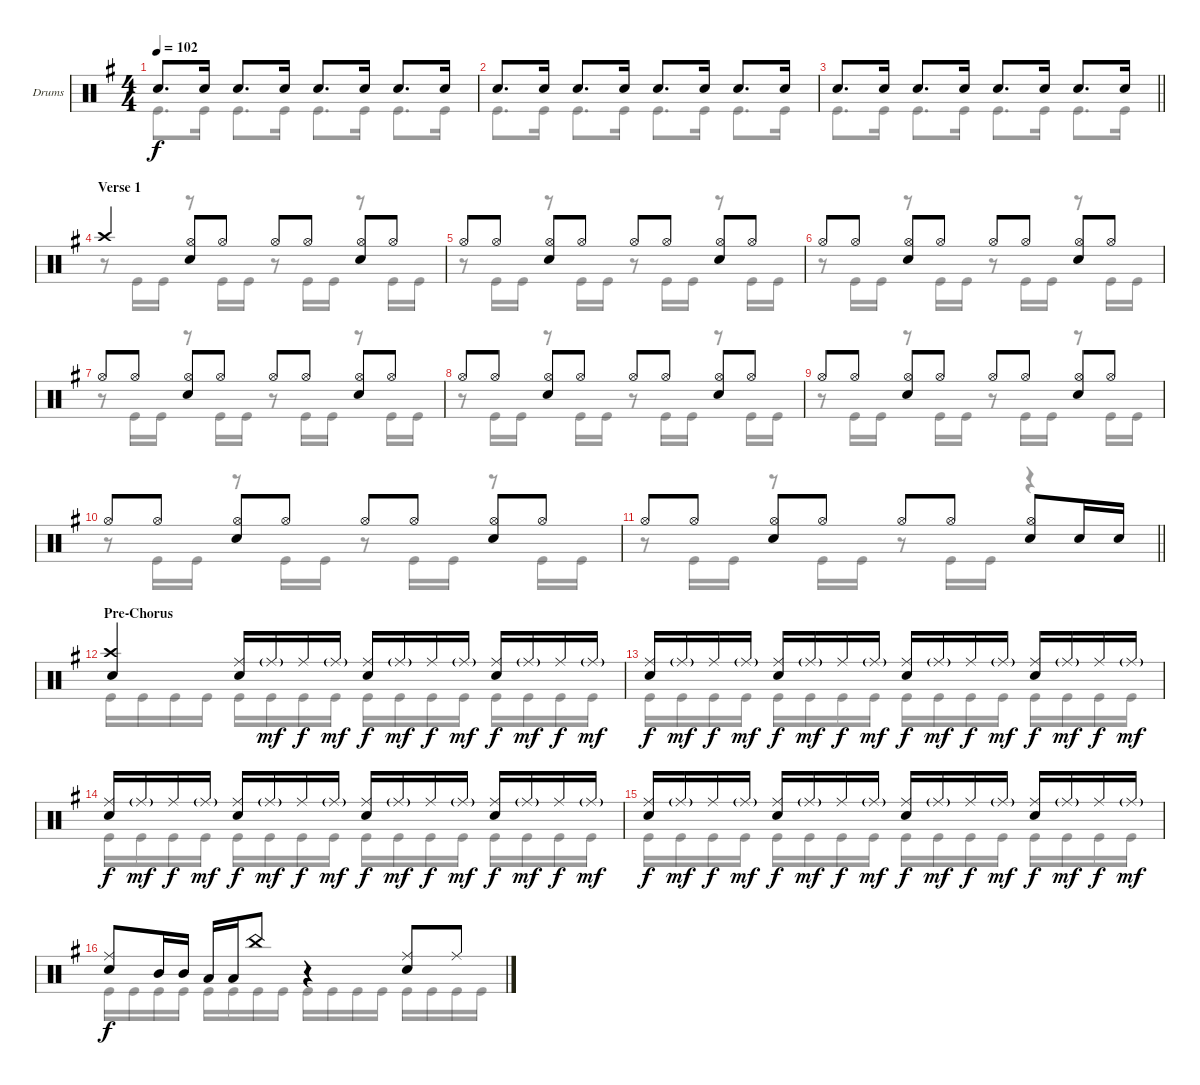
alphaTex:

\bracketExtendMode groupsimilarinstruments
\firstSystemTrackNameOrientation horizontal
\otherSystemsTrackNameOrientation horizontal
\track ("Drumkit" "Drums") {instrument percussion}
\staff {score}
\articulation defaults
\voice
\ts (4 4)
\tempo 102
\clef neutral
\ks g "Snare (hit) 2".8{d dy f} "Snare (hit) 2".16 "Snare (hit) 2".8{d} "Snare (hit) 2".16 "Snare (hit) 2".8{d} "Snare (hit) 2".16 "Snare (hit) 2".8{d} "Snare (hit) 2".16
|
"Snare (hit) 2".8{d} "Snare (hit) 2".16 "Snare (hit) 2".8{d} "Snare (hit) 2".16 "Snare (hit) 2".8{d} "Snare (hit) 2".16 "Snare (hit) 2".8{d} "Snare (hit) 2".16 |
\barLineRight lightlight "Snare (hit) 2".8{d} "Snare (hit) 2".16 "Snare (hit) 2".8{d} "Snare (hit) 2".16 "Snare (hit) 2".8{d} "Snare (hit) 2".16 "Snare (hit) 2".8{d} "Snare (hit) 2".16
|
\section ("" "Verse 1")
"Crash high (hit)".4 ("Hi-Hat (open)" "Snare (hit) 2").8 "Hi-Hat (open)".8 "Hi-Hat (open)".8 "Hi-Hat (open)".8 ("Hi-Hat (open)" "Snare (hit) 2").8 "Hi-Hat (open)".8 |
"Hi-Hat (open)".8 "Hi-Hat (open)".8 ("Hi-Hat (open)" "Snare (hit) 2").8 "Hi-Hat (open)".8 "Hi-Hat (open)".8 "Hi-Hat (open)".8 ("Hi-Hat (open)" "Snare (hit) 2").8 "Hi-Hat (open)".8 |
"Hi-Hat (open)".8 "Hi-Hat (open)".8 ("Hi-Hat (open)" "Snare (hit) 2").8 "Hi-Hat (open)".8 "Hi-Hat (open)".8 "Hi-Hat (open)".8 ("Hi-Hat (open)" "Snare (hit) 2").8 "Hi-Hat (open)".8 |
"Hi-Hat (open)".8 "Hi-Hat (open)".8 ("Hi-Hat (open)" "Snare (hit) 2").8 "Hi-Hat (open)".8 "Hi-Hat (open)".8 "Hi-Hat (open)".8 ("Hi-Hat (open)" "Snare (hit) 2").8 "Hi-Hat (open)".8 |
"Hi-Hat (open)".8 "Hi-Hat (open)".8 ("Hi-Hat (open)" "Snare (hit) 2").8 "Hi-Hat (open)".8 "Hi-Hat (open)".8 "Hi-Hat (open)".8 ("Hi-Hat (open)" "Snare (hit) 2").8 "Hi-Hat (open)".8 |
"Hi-Hat (open)".8 "Hi-Hat (open)".8 ("Hi-Hat (open)" "Snare (hit) 2").8 "Hi-Hat (open)".8 "Hi-Hat (open)".8 "Hi-Hat (open)".8 ("Hi-Hat (open)" "Snare (hit) 2").8 "Hi-Hat (open)".8 |
"Hi-Hat (open)".8 "Hi-Hat (open)".8 ("Hi-Hat (open)" "Snare (hit) 2").8 "Hi-Hat (open)".8 "Hi-Hat (open)".8 "Hi-Hat (open)".8 ("Hi-Hat (open)" "Snare (hit) 2").8 "Hi-Hat (open)".8 |
\barLineRight lightlight "Hi-Hat (open)".8 "Hi-Hat (open)".8
("Hi-Hat (open)" "Snare (hit) 2").8 "Hi-Hat (open)".8 "Hi-Hat (open)".8 "Hi-Hat (open)".8 ("Hi-Hat (open)" "Snare (hit) 2").8 "Snare (hit) 2".16 "Snare (hit) 2".16 |
\section ("" "Pre-Chorus")
("Crash high (hit)" "Snare (hit) 2").4 ("Ride (middle)" "Snare (hit) 2").16 "Ride (middle)"{g}.16{dy mf} "Ride (middle)".16{dy f} "Ride (middle)"{g}.16{dy mf} ("Ride (middle)" "Snare (hit) 2").16{dy f} "Ride (middle)"{g}.16{dy mf} "Ride (middle)".16{dy f} "Ride (middle)"{g}.16{dy mf} ("Ride (middle)" "Snare (hit) 2").16{dy f} "Ride (middle)"{g}.16{dy mf} "Ride (middle)".16{dy f} "Ride (middle)"{g}.16{dy mf} |
("Ride (middle)" "Snare (hit) 2").16{dy f} "Ride (middle)"{g}.16{dy mf} "Ride (middle)".16{dy f} "Ride (middle)"{g}.16{dy mf} ("Ride (middle)" "Snare (hit) 2").16{dy f} "Ride (middle)"{g}.16{dy mf} "Ride (middle)".16{dy f} "Ride (middle)"{g}.16{dy mf} ("Ride (middle)" "Snare (hit) 2").16{dy f} "Ride (middle)"{g}.16{dy mf} "Ride (middle)".16{dy f} "Ride (middle)"{g}.16{dy mf} ("Ride (middle)" "Snare (hit) 2").16{dy f} "Ride (middle)"{g}.16{dy mf} "Ride (middle)".16{dy f} "Ride (middle)"{g}.16{dy mf} |
("Ride (middle)" "Snare (hit) 2").16{dy f} "Ride (middle)"{g}.16{dy mf} "Ride (middle)".16{dy f} "Ride (middle)"{g}.16{dy mf} ("Ride (middle)" "Snare (hit) 2").16{dy f} "Ride (middle)"{g}.16{dy mf} "Ride (middle)".16{dy f} "Ride (middle)"{g}.16{dy mf} ("Ride (middle)" "Snare (hit) 2").16{dy f} "Ride (middle)"{g}.16{dy mf} "Ride (middle)".16{dy f} "Ride (middle)"{g}.16{dy mf} ("Ride (middle)" "Snare (hit) 2").16{dy f} "Ride (middle)"{g}.16{dy mf} "Ride (middle)".16{dy f} "Ride (middle)"{g}.16{dy mf} |
("Ride (middle)" "Snare (hit) 2").16{dy f} "Ride (middle)"{g}.16{dy mf} "Ride (middle)".16{dy f} "Ride (middle)"{g}.16{dy mf} ("Ride (middle)" "Snare (hit) 2").16{dy f} "Ride (middle)"{g}.16{dy mf} "Ride (middle)".16{dy f} "Ride (middle)"{g}.16{dy mf} ("Ride (middle)" "Snare (hit) 2").16{dy f} "Ride (middle)"{g}.16{dy mf} "Ride (middle)".16{dy f} "Ride (middle)"{g}.16{dy mf} ("Ride (middle)" "Snare (hit) 2").16{dy f} "Ride (middle)"{g}.16{dy mf} "Ride (middle)".16{dy f} "Ride (middle)"{g}.16{dy mf} |
("Ride (middle)" "Snare (hit) 2").8{dy f} "Mid Tom (hit)".16 "Mid Tom (hit)".16 "Low Tom (hit)".16 "Low Tom (hit)".16 "China (hit)".8 r.4 ("Ride (middle)" "Snare (hit) 2").8 "Ride (middle)".8
\voice
\clef neutral
\ottava regular
\simile none
\ks g "Kick (hit)".8{d dy f} "Kick (hit)".16 "Kick (hit)".8{d} "Kick (hit)".16 "Kick (hit)".8{d} "Kick (hit)".16 "Kick (hit)".8{d} "Kick (hit)".16
|
"Kick (hit)".8{d} "Kick (hit)".16 "Kick (hit)".8{d} "Kick (hit)".16 "Kick (hit)".8{d} "Kick (hit)".16 "Kick (hit)".8{d} "Kick (hit)".16 |
\barLineRight lightlight "Kick (hit)".8{d} "Kick (hit)".16 "Kick (hit)".8{d} "Kick (hit)".16 "Kick (hit)".8{d} "Kick (hit)".16 "Kick (hit)".8{d} "Kick (hit)".16
|
r.8 "Kick (hit)".16 "Kick (hit)".16 r.8 "Kick (hit)".16 "Kick (hit)".16 r.8 "Kick (hit)".16 "Kick (hit)".16 r.8 "Kick (hit)".16 "Kick (hit)".16 |
r.8 "Kick (hit)".16 "Kick (hit)".16 r.8 "Kick (hit)".16 "Kick (hit)".16 r.8 "Kick (hit)".16 "Kick (hit)".16 r.8 "Kick (hit)".16 "Kick (hit)".16 |
r.8 "Kick (hit)".16 "Kick (hit)".16 r.8 "Kick (hit)".16 "Kick (hit)".16 r.8 "Kick (hit)".16 "Kick (hit)".16 r.8 "Kick (hit)".16 "Kick (hit)".16 |
r.8 "Kick (hit)".16 "Kick (hit)".16 r.8 "Kick (hit)".16 "Kick (hit)".16 r.8 "Kick (hit)".16 "Kick (hit)".16 r.8 "Kick (hit)".16 "Kick (hit)".16 |
r.8 "Kick (hit)".16 "Kick (hit)".16 r.8 "Kick (hit)".16 "Kick (hit)".16 r.8 "Kick (hit)".16 "Kick (hit)".16 r.8 "Kick (hit)".16 "Kick (hit)".16 |
r.8 "Kick (hit)".16 "Kick (hit)".16 r.8 "Kick (hit)".16 "Kick (hit)".16 r.8 "Kick (hit)".16 "Kick (hit)".16 r.8 "Kick (hit)".16 "Kick (hit)".16 |
r.8 "Kick (hit)".16 "Kick (hit)".16 r.8 "Kick (hit)".16 "Kick (hit)".16 r.8 "Kick (hit)".16 "Kick (hit)".16 r.8 "Kick (hit)".16 "Kick (hit)".16 |
\barLineRight lightlight
r.8 "Kick (hit)".16 "Kick (hit)".16 r.8 "Kick (hit)".16 "Kick (hit)".16 r.8 "Kick (hit)".16 "Kick (hit)".16 r.4 |
"Kick (hit)".16 "Kick (hit)".16 "Kick (hit)".16 "Kick (hit)".16 "Kick (hit)".16 "Kick (hit)".16 "Kick (hit)".16 "Kick (hit)".16 "Kick (hit)".16 "Kick (hit)".16 "Kick (hit)".16 "Kick (hit)".16 "Kick (hit)".16 "Kick (hit)".16 "Kick (hit)".16 "Kick (hit)".16 |
"Kick (hit)".16 "Kick (hit)".16 "Kick (hit)".16 "Kick (hit)".16 "Kick (hit)".16 "Kick (hit)".16 "Kick (hit)".16 "Kick (hit)".16 "Kick (hit)".16 "Kick (hit)".16 "Kick (hit)".16 "Kick (hit)".16 "Kick (hit)".16 "Kick (hit)".16 "Kick (hit)".16 "Kick (hit)".16 |
"Kick (hit)".16 "Kick (hit)".16 "Kick (hit)".16 "Kick (hit)".16 "Kick (hit)".16 "Kick (hit)".16 "Kick (hit)".16 "Kick (hit)".16 "Kick (hit)".16 "Kick (hit)".16 "Kick (hit)".16 "Kick (hit)".16 "Kick (hit)".16 "Kick (hit)".16 "Kick (hit)".16 "Kick (hit)".16 |
"Kick (hit)".16 "Kick (hit)".16 "Kick (hit)".16 "Kick (hit)".16 "Kick (hit)".16 "Kick (hit)".16 "Kick (hit)".16 "Kick (hit)".16 "Kick (hit)".16 "Kick (hit)".16 "Kick (hit)".16 "Kick (hit)".16 "Kick (hit)".16 "Kick (hit)".16 "Kick (hit)".16 "Kick (hit)".16 |
"Kick (hit)".16 "Kick (hit)".16 "Kick (hit)".16 "Kick (hit)".16 "Kick (hit)".16 "Kick (hit)".16 "Kick (hit)".16 "Kick (hit)".16 "Kick (hit)".16 "Kick (hit)".16 "Kick (hit)".16 "Kick (hit)".16 "Kick (hit)".16 "Kick (hit)".16 "Kick (hit)".16 "Kick (hit)".16
